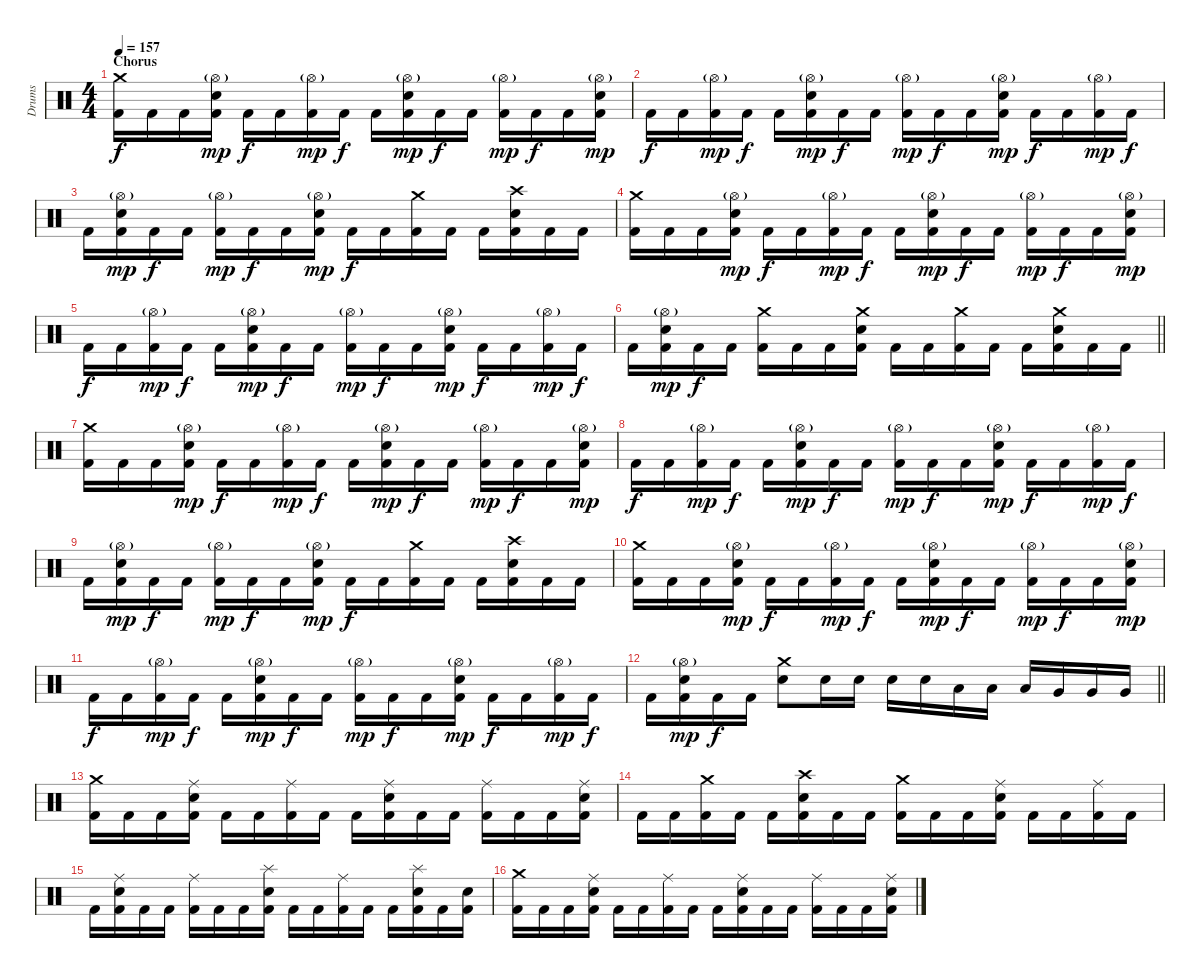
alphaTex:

\track ("Drums" "Drums") {instrument percussion}
\staff {score}
\articulation defaults
\ts (4 4)
\section ("" "Chorus")
\tempo 157
\clef neutral
\ks c
("Crash medium (hit)" "Kick (hit) 2").16{dy f} "Kick (hit) 2".16 "Kick (hit) 2".16 ("Snare (hit) 2" "Hi-Hat (open)"{g} "Kick (hit) 2").16{dy mp} "Kick (hit) 2".16{dy f} "Kick (hit) 2".16 ("Hi-Hat (open)"{g} "Kick (hit) 2").16{dy mp} "Kick (hit) 2".16{dy f} "Kick (hit) 2".16 ("Snare (hit) 2" "Hi-Hat (open)"{g} "Kick (hit) 2").16{dy mp} "Kick (hit) 2".16{dy f} "Kick (hit) 2".16 ("Hi-Hat (open)"{g} "Kick (hit) 2").16{dy mp} "Kick (hit) 2".16{dy f} "Kick (hit) 2".16 ("Snare (hit) 2" "Hi-Hat (open)"{g} "Kick (hit) 2").16{dy mp} |
"Kick (hit) 2".16{dy f} "Kick (hit) 2".16 ("Hi-Hat (open)"{g} "Kick (hit) 2").16{dy mp} "Kick (hit) 2".16{dy f} "Kick (hit) 2".16 ("Snare (hit) 2" "Hi-Hat (open)"{g} "Kick (hit) 2").16{dy mp} "Kick (hit) 2".16{dy f} "Kick (hit) 2".16 ("Hi-Hat (open)"{g} "Kick (hit) 2").16{dy mp} "Kick (hit) 2".16{dy f} "Kick (hit) 2".16 ("Snare (hit) 2" "Hi-Hat (open)"{g} "Kick (hit) 2").16{dy mp} "Kick (hit) 2".16{dy f} "Kick (hit) 2".16 ("Hi-Hat (open)"{g} "Kick (hit) 2").16{dy mp} "Kick (hit) 2".16{dy f} |
"Kick (hit) 2".16 ("Snare (hit) 2" "Hi-Hat (open)"{g} "Kick (hit) 2").16{dy mp} "Kick (hit) 2".16{dy f} "Kick (hit) 2".16 ("Hi-Hat (open)"{g} "Kick (hit) 2").16{dy mp} "Kick (hit) 2".16{dy f} "Kick (hit) 2".16 ("Snare (hit) 2" "Hi-Hat (open)"{g} "Kick (hit) 2").16{dy mp} "Kick (hit) 2".16{dy f} "Kick (hit) 2".16 ("Crash medium (hit)" "Kick (hit) 2").16 "Kick (hit) 2".16 "Kick (hit) 2".16 ("Crash high (hit)" "Snare (hit) 2" "Kick (hit) 2").16 "Kick (hit) 2".16 "Kick (hit) 2".16 |
("Crash medium (hit)" "Kick (hit) 2").16 "Kick (hit) 2".16 "Kick (hit) 2".16 ("Snare (hit) 2" "Hi-Hat (open)"{g} "Kick (hit) 2").16{dy mp} "Kick (hit) 2".16{dy f} "Kick (hit) 2".16 ("Hi-Hat (open)"{g} "Kick (hit) 2").16{dy mp} "Kick (hit) 2".16{dy f} "Kick (hit) 2".16 ("Snare (hit) 2" "Hi-Hat (open)"{g} "Kick (hit) 2").16{dy mp} "Kick (hit) 2".16{dy f} "Kick (hit) 2".16 ("Hi-Hat (open)"{g} "Kick (hit) 2").16{dy mp} "Kick (hit) 2".16{dy f} "Kick (hit) 2".16 ("Snare (hit) 2" "Hi-Hat (open)"{g} "Kick (hit) 2").16{dy mp} |
"Kick (hit) 2".16{dy f} "Kick (hit) 2".16 ("Hi-Hat (open)"{g} "Kick (hit) 2").16{dy mp} "Kick (hit) 2".16{dy f} "Kick (hit) 2".16 ("Snare (hit) 2" "Hi-Hat (open)"{g} "Kick (hit) 2").16{dy mp} "Kick (hit) 2".16{dy f} "Kick (hit) 2".16 ("Hi-Hat (open)"{g} "Kick (hit) 2").16{dy mp} "Kick (hit) 2".16{dy f} "Kick (hit) 2".16 ("Snare (hit) 2" "Hi-Hat (open)"{g} "Kick (hit) 2").16{dy mp} "Kick (hit) 2".16{dy f} "Kick (hit) 2".16 ("Hi-Hat (open)"{g} "Kick (hit) 2").16{dy mp} "Kick (hit) 2".16{dy f} |
\barLineRight lightlight "Kick (hit) 2".16
("Snare (hit) 2" "Hi-Hat (open)"{g} "Kick (hit) 2").16{dy mp} "Kick (hit) 2".16{dy f} "Kick (hit) 2".16 ("Crash medium (hit)" "Kick (hit) 2").16 "Kick (hit) 2".16 "Kick (hit) 2".16 ("Crash medium (hit)" "Snare (hit) 2" "Kick (hit) 2").16 "Kick (hit) 2".16 "Kick (hit) 2".16 ("Crash medium (hit)" "Kick (hit) 2").16 "Kick (hit) 2".16 "Kick (hit) 2".16 ("Crash medium (hit)" "Snare (hit) 2" "Kick (hit) 2").16 "Kick (hit) 2".16 "Kick (hit) 2".16 |
("Crash medium (hit)" "Kick (hit) 2").16 "Kick (hit) 2".16 "Kick (hit) 2".16 ("Snare (hit) 2" "Hi-Hat (open)"{g} "Kick (hit) 2").16{dy mp} "Kick (hit) 2".16{dy f} "Kick (hit) 2".16 ("Hi-Hat (open)"{g} "Kick (hit) 2").16{dy mp} "Kick (hit) 2".16{dy f} "Kick (hit) 2".16 ("Snare (hit) 2" "Hi-Hat (open)"{g} "Kick (hit) 2").16{dy mp} "Kick (hit) 2".16{dy f} "Kick (hit) 2".16 ("Hi-Hat (open)"{g} "Kick (hit) 2").16{dy mp} "Kick (hit) 2".16{dy f} "Kick (hit) 2".16 ("Snare (hit) 2" "Hi-Hat (open)"{g} "Kick (hit) 2").16{dy mp} |
"Kick (hit) 2".16{dy f} "Kick (hit) 2".16 ("Hi-Hat (open)"{g} "Kick (hit) 2").16{dy mp} "Kick (hit) 2".16{dy f} "Kick (hit) 2".16 ("Snare (hit) 2" "Hi-Hat (open)"{g} "Kick (hit) 2").16{dy mp} "Kick (hit) 2".16{dy f} "Kick (hit) 2".16 ("Hi-Hat (open)"{g} "Kick (hit) 2").16{dy mp} "Kick (hit) 2".16{dy f} "Kick (hit) 2".16 ("Snare (hit) 2" "Hi-Hat (open)"{g} "Kick (hit) 2").16{dy mp} "Kick (hit) 2".16{dy f} "Kick (hit) 2".16 ("Hi-Hat (open)"{g} "Kick (hit) 2").16{dy mp} "Kick (hit) 2".16{dy f} |
"Kick (hit) 2".16 ("Snare (hit) 2" "Hi-Hat (open)"{g} "Kick (hit) 2").16{dy mp} "Kick (hit) 2".16{dy f} "Kick (hit) 2".16 ("Hi-Hat (open)"{g} "Kick (hit) 2").16{dy mp} "Kick (hit) 2".16{dy f} "Kick (hit) 2".16 ("Snare (hit) 2" "Hi-Hat (open)"{g} "Kick (hit) 2").16{dy mp} "Kick (hit) 2".16{dy f} "Kick (hit) 2".16 ("Crash medium (hit)" "Kick (hit) 2").16 "Kick (hit) 2".16 "Kick (hit) 2".16 ("Crash high (hit)" "Snare (hit) 2" "Kick (hit) 2").16 "Kick (hit) 2".16 "Kick (hit) 2".16 |
("Crash medium (hit)" "Kick (hit) 2").16 "Kick (hit) 2".16 "Kick (hit) 2".16 ("Snare (hit) 2" "Hi-Hat (open)"{g} "Kick (hit) 2").16{dy mp} "Kick (hit) 2".16{dy f} "Kick (hit) 2".16 ("Hi-Hat (open)"{g} "Kick (hit) 2").16{dy mp} "Kick (hit) 2".16{dy f} "Kick (hit) 2".16 ("Snare (hit) 2" "Hi-Hat (open)"{g} "Kick (hit) 2").16{dy mp} "Kick (hit) 2".16{dy f} "Kick (hit) 2".16 ("Hi-Hat (open)"{g} "Kick (hit) 2").16{dy mp} "Kick (hit) 2".16{dy f} "Kick (hit) 2".16 ("Snare (hit) 2" "Hi-Hat (open)"{g} "Kick (hit) 2").16{dy mp} |
"Kick (hit) 2".16{dy f} "Kick (hit) 2".16 ("Hi-Hat (open)"{g} "Kick (hit) 2").16{dy mp} "Kick (hit) 2".16{dy f} "Kick (hit) 2".16 ("Snare (hit) 2" "Hi-Hat (open)"{g} "Kick (hit) 2").16{dy mp} "Kick (hit) 2".16{dy f} "Kick (hit) 2".16 ("Hi-Hat (open)"{g} "Kick (hit) 2").16{dy mp} "Kick (hit) 2".16{dy f} "Kick (hit) 2".16 ("Snare (hit) 2" "Hi-Hat (open)"{g} "Kick (hit) 2").16{dy mp} "Kick (hit) 2".16{dy f} "Kick (hit) 2".16 ("Hi-Hat (open)"{g} "Kick (hit) 2").16{dy mp} "Kick (hit) 2".16{dy f} |
\barLineRight lightlight "Kick (hit) 2".16
("Snare (hit) 2" "Hi-Hat (open)"{g} "Kick (hit) 2").16{dy mp} "Kick (hit) 2".16{dy f} "Kick (hit) 2".16 ("Crash medium (hit)" "Snare (hit) 2").8 "Snare (hit) 2".16 "Snare (hit) 2".16 "Snare (hit) 2".16 "Snare (hit) 2".16 "Low Tom (hit)".16 "Low Tom (hit)".16 "Low Tom (hit)".16 "Very Low Tom (hit)".16 "Very Low Tom (hit)".16 "Very Low Tom (hit)".16 |
("Crash medium (hit)" "Kick (hit) 2").16 "Kick (hit) 2".16 "Kick (hit) 2".16 ("Ride (middle)" "Snare (hit) 2" "Kick (hit) 2").16 "Kick (hit) 2".16 "Kick (hit) 2".16 ("Ride (middle)" "Kick (hit) 2").16 "Kick (hit) 2".16 "Kick (hit) 2".16 ("Ride (middle)" "Snare (hit) 2" "Kick (hit) 2").16 "Kick (hit) 2".16 "Kick (hit) 2".16 ("Ride (middle)" "Kick (hit) 2").16 "Kick (hit) 2".16 "Kick (hit) 2".16 ("Ride (middle)" "Snare (hit) 2" "Kick (hit) 2").16 |
"Kick (hit) 2".16 "Kick (hit) 2".16 ("Crash medium (hit)" "Kick (hit) 2").16 "Kick (hit) 2".16 "Kick (hit) 2".16 ("Crash high (hit)" "Snare (hit) 2" "Kick (hit) 2").16 "Kick (hit) 2".16 "Kick (hit) 2".16 ("Crash medium (hit)" "Kick (hit) 2").16 "Kick (hit) 2".16 "Kick (hit) 2".16 ("Ride (middle)" "Snare (hit) 2" "Kick (hit) 2").16 "Kick (hit) 2".16 "Kick (hit) 2".16 ("Ride (middle)" "Kick (hit) 2").16 "Kick (hit) 2".16 |
"Kick (hit) 2".16 ("Ride (middle)" "Snare (hit) 2" "Kick (hit) 2").16 "Kick (hit) 2".16 "Kick (hit) 2".16 ("Ride (middle)" "Kick (hit) 2").16 "Kick (hit) 2".16 "Kick (hit) 2".16 ("Splash (hit)" "Snare (hit) 2" "Kick (hit) 2").16 "Kick (hit) 2".16 "Kick (hit) 2".16 ("Ride (middle)" "Kick (hit) 2").16 "Kick (hit) 2".16 "Kick (hit) 2".16 ("Splash (hit)" "Snare (hit) 2" "Kick (hit) 2").16 "Kick (hit) 2".16 ("Snare (hit) 2" "Kick (hit) 2").16 |
("Crash medium (hit)" "Kick (hit) 2").16 "Kick (hit) 2".16 "Kick (hit) 2".16 ("Ride (middle)" "Snare (hit) 2" "Kick (hit) 2").16 "Kick (hit) 2".16 "Kick (hit) 2".16 ("Ride (middle)" "Kick (hit) 2").16 "Kick (hit) 2".16 "Kick (hit) 2".16 ("Ride (middle)" "Snare (hit) 2" "Kick (hit) 2").16 "Kick (hit) 2".16 "Kick (hit) 2".16 ("Ride (middle)" "Kick (hit) 2").16 "Kick (hit) 2".16 "Kick (hit) 2".16 ("Ride (middle)" "Snare (hit) 2" "Kick (hit) 2").16
